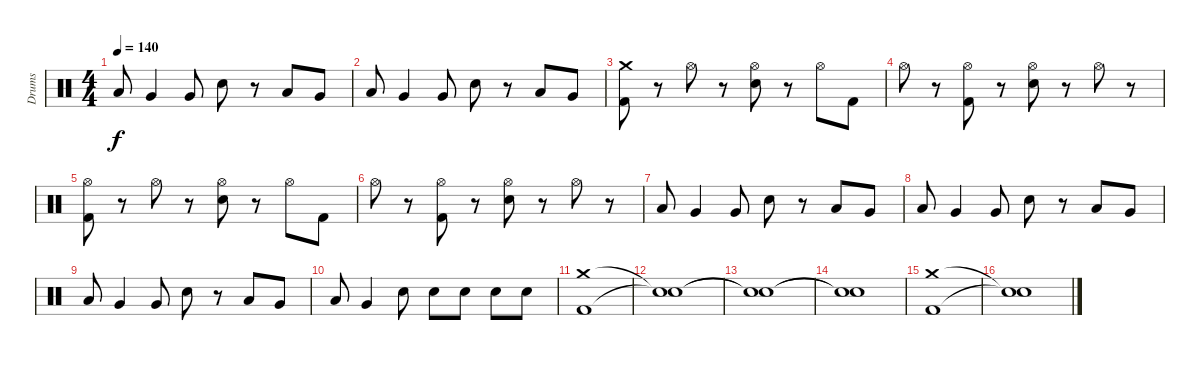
\track ("Drums" "Drums") {instrument percussion}
\staff {score}
\articulation defaults
\ts (4 4)
\tempo 140
\clef neutral
\ks c "Low Tom (hit)".8{dy f} "Very Low Tom (hit)".4 "Very Low Tom (hit)".8 "Electric Snare (hit)".8
r.8 "Low Tom (hit)".8 "Very Low Tom (hit)".8 |
"Low Tom (hit)".8 "Very Low Tom (hit)".4 "Very Low Tom (hit)".8 "Electric Snare (hit)".8 r.8 "Low Tom (hit)".8 "Very Low Tom (hit)".8 |
("Crash medium (hit)" "Kick (hit) 2").8 r.8 "Hi-Hat (open)".8 r.8 ("Hi-Hat (open)" "Electric Snare (hit)").8 r.8 "Hi-Hat (open)".8 "Kick (hit) 2".8 |
"Hi-Hat (open)".8 r.8 ("Hi-Hat (open)" "Kick (hit) 2").8 r.8 ("Hi-Hat (open)" "Electric Snare (hit)").8 r.8 "Hi-Hat (open)".8 r.8 |
("Hi-Hat (open)" "Kick (hit) 2").8 r.8 "Hi-Hat (open)".8 r.8 ("Hi-Hat (open)" "Electric Snare (hit)").8 r.8 "Hi-Hat (open)".8 "Kick (hit) 2".8 |
"Hi-Hat (open)".8 r.8 ("Hi-Hat (open)" "Kick (hit) 2").8 r.8 ("Hi-Hat (open)" "Electric Snare (hit)").8 r.8 "Hi-Hat (open)".8 r.8 |
"Low Tom (hit)".8 "Very Low Tom (hit)".4 "Very Low Tom (hit)".8 "Electric Snare (hit)".8 r.8 "Low Tom (hit)".8 "Very Low Tom (hit)".8 |
"Low Tom (hit)".8 "Very Low Tom (hit)".4 "Very Low Tom (hit)".8 "Electric Snare (hit)".8 r.8 "Low Tom (hit)".8 "Very Low Tom (hit)".8 |
"Low Tom (hit)".8 "Very Low Tom (hit)".4 "Very Low Tom (hit)".8 "Electric Snare (hit)".8 r.8 "Low Tom (hit)".8 "Very Low Tom (hit)".8 |
"Low Tom (hit)".8 "Very Low Tom (hit)".4 "Electric Snare (hit)".8 "Electric Snare (hit)".8 "Electric Snare (hit)".8 "Electric Snare (hit)".8 "Electric Snare (hit)".8 |
("Crash medium (hit)" "Kick (hit) 2").1 |
("Snare (hit)"{t} "Snare (hit)"{t}).1 |
("Snare (hit)"{t} "Snare (hit)"{t}).1 |
("Snare (hit)"{t} "Snare (hit)"{t}).1 |
("Crash medium (hit)" "Kick (hit) 2").1 |
("Snare (hit)"{t} "Snare (hit)"{t}).1
